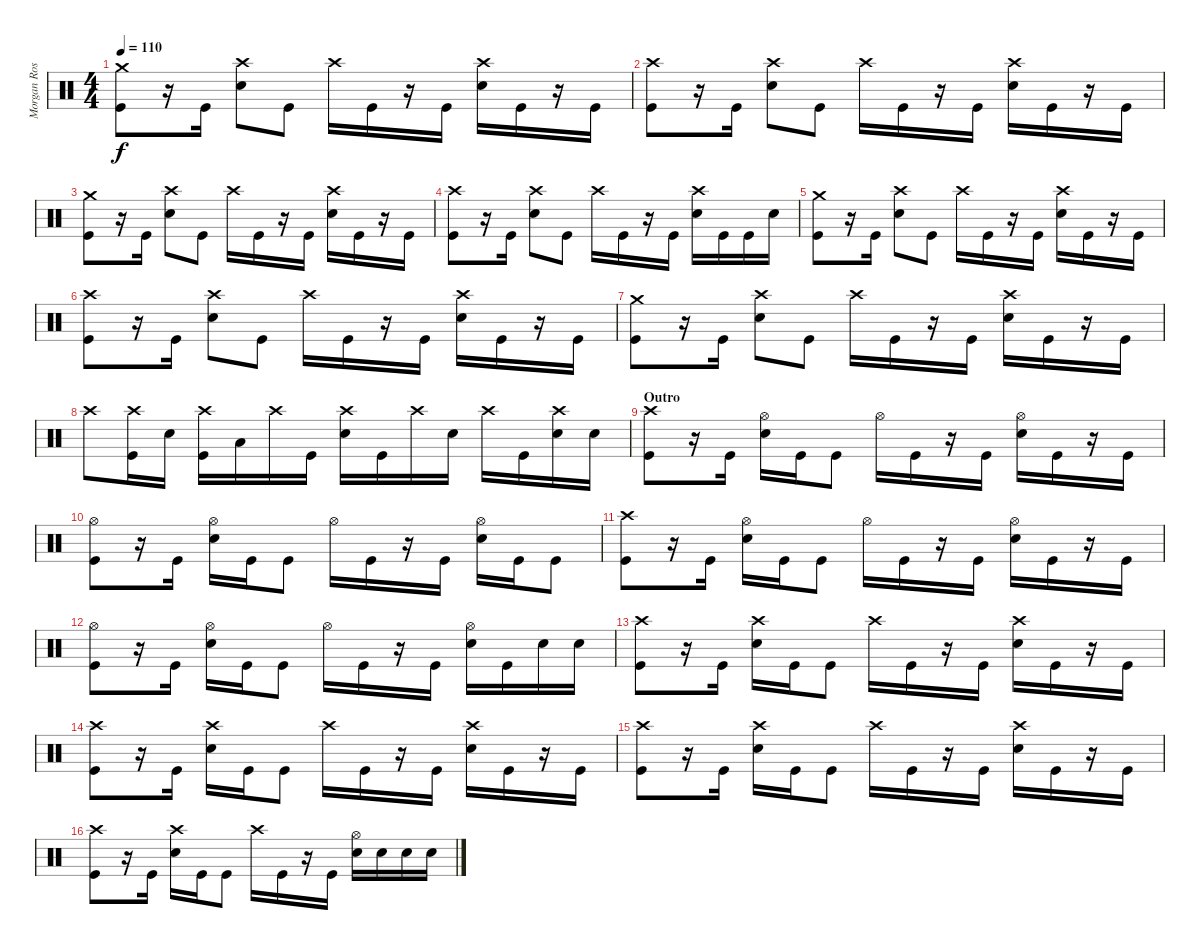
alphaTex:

\track ("Morgan Rose" "Morgan Ros") {instrument percussion}
\staff {score}
\articulation defaults
\ts (4 4)
\tempo 110
\clef neutral
\ks c
("Crash medium (hit)" "Kick (hit)").8{dy f} r.16 "Kick (hit)".16 ("Crash high (hit)" "Snare (hit) 2").8 "Kick (hit)".8 "Crash high (hit)".16 "Kick (hit)".16 r.16 "Kick (hit)".16 ("Crash high (hit)" "Snare (hit) 2").16 "Kick (hit)".16 r.16 "Kick (hit)".16 |
("Crash high (hit)" "Kick (hit)").8 r.16 "Kick (hit)".16 ("Crash high (hit)" "Snare (hit) 2").8 "Kick (hit)".8 "Crash high (hit)".16 "Kick (hit)".16 r.16 "Kick (hit)".16 ("Crash high (hit)" "Snare (hit) 2").16 "Kick (hit)".16 r.16 "Kick (hit)".16 |
("Crash medium (hit)" "Kick (hit)").8 r.16 "Kick (hit)".16 ("Crash high (hit)" "Snare (hit) 2").8 "Kick (hit)".8 "Crash high (hit)".16 "Kick (hit)".16 r.16 "Kick (hit)".16 ("Crash high (hit)" "Snare (hit) 2").16 "Kick (hit)".16 r.16 "Kick (hit)".16 |
("Crash high (hit)" "Kick (hit)").8 r.16 "Kick (hit)".16 ("Crash high (hit)" "Snare (hit) 2").8 "Kick (hit)".8 "Crash high (hit)".16 "Kick (hit)".16 r.16 "Kick (hit)".16 ("Crash high (hit)" "Snare (hit) 2").16 "Kick (hit)".16 "Kick (hit)".16 "Snare (hit) 2".16 |
("Crash medium (hit)" "Kick (hit)").8 r.16 "Kick (hit)".16 ("Crash high (hit)" "Snare (hit) 2").8 "Kick (hit)".8 "Crash high (hit)".16 "Kick (hit)".16 r.16 "Kick (hit)".16 ("Crash high (hit)" "Snare (hit) 2").16 "Kick (hit)".16 r.16 "Kick (hit)".16 |
("Crash high (hit)" "Kick (hit)").8 r.16 "Kick (hit)".16 ("Crash high (hit)" "Snare (hit) 2").8 "Kick (hit)".8 "Crash high (hit)".16 "Kick (hit)".16 r.16 "Kick (hit)".16 ("Crash high (hit)" "Snare (hit) 2").16 "Kick (hit)".16 r.16 "Kick (hit)".16 |
("Crash medium (hit)" "Kick (hit)").8 r.16 "Kick (hit)".16 ("Crash high (hit)" "Snare (hit) 2").8 "Kick (hit)".8 "Crash high (hit)".16 "Kick (hit)".16 r.16 "Kick (hit)".16 ("Crash high (hit)" "Snare (hit) 2").16 "Kick (hit)".16 r.16 "Kick (hit)".16 |
"Crash high (hit)".8 ("Crash high (hit)" "Kick (hit)").16 "Snare (hit) 2".16 ("Crash high (hit)" "Kick (hit)").16 "Low Tom (hit)".16 "Crash high (hit)".16 "Kick (hit)".16 ("Crash high (hit)" "Snare (hit) 2").16 "Kick (hit)".16 "Crash high (hit)".16 "Snare (hit) 2".16 "Crash high (hit)".16 "Kick (hit)".16 ("Crash high (hit)" "Snare (hit) 2").16 "Snare (hit) 2".16 |
\section ("" "Outro")
("Crash high (hit)" "Kick (hit)").8 r.16 "Kick (hit)".16 ("Hi-Hat (open)" "Snare (hit) 2").16 "Kick (hit)".16 "Kick (hit)".8 "Hi-Hat (open)".16 "Kick (hit)".16 r.16 "Kick (hit)".16 ("Hi-Hat (open)" "Snare (hit) 2").16 "Kick (hit)".16 r.16 "Kick (hit)".16 |
("Hi-Hat (open)" "Kick (hit)").8 r.16 "Kick (hit)".16 ("Hi-Hat (open)" "Snare (hit) 2").16 "Kick (hit)".16 "Kick (hit)".8 "Hi-Hat (open)".16 "Kick (hit)".16 r.16 "Kick (hit)".16 ("Hi-Hat (open)" "Snare (hit) 2").16 "Kick (hit)".16 "Kick (hit)".8 |
("Crash high (hit)" "Kick (hit)").8 r.16 "Kick (hit)".16 ("Hi-Hat (open)" "Snare (hit) 2").16 "Kick (hit)".16 "Kick (hit)".8 "Hi-Hat (open)".16 "Kick (hit)".16 r.16 "Kick (hit)".16 ("Hi-Hat (open)" "Snare (hit) 2").16 "Kick (hit)".16 r.16 "Kick (hit)".16 |
("Hi-Hat (open)" "Kick (hit)").8 r.16 "Kick (hit)".16 ("Hi-Hat (open)" "Snare (hit) 2").16 "Kick (hit)".16 "Kick (hit)".8 "Hi-Hat (open)".16 "Kick (hit)".16 r.16 "Kick (hit)".16 ("Hi-Hat (open)" "Snare (hit) 2").16 "Kick (hit)".16 "Snare (hit) 2".16 "Snare (hit) 2".16 |
("Crash high (hit)" "Kick (hit)").8 r.16 "Kick (hit)".16 ("Crash high (hit)" "Snare (hit) 2").16 "Kick (hit)".16 "Kick (hit)".8 "Crash high (hit)".16 "Kick (hit)".16 r.16 "Kick (hit)".16 ("Crash high (hit)" "Snare (hit) 2").16 "Kick (hit)".16 r.16 "Kick (hit)".16 |
("Crash high (hit)" "Kick (hit)").8 r.16 "Kick (hit)".16 ("Crash high (hit)" "Snare (hit) 2").16 "Kick (hit)".16 "Kick (hit)".8 "Crash high (hit)".16 "Kick (hit)".16 r.16 "Kick (hit)".16 ("Crash high (hit)" "Snare (hit) 2").16 "Kick (hit)".16 r.16 "Kick (hit)".16 |
("Crash high (hit)" "Kick (hit)").8 r.16 "Kick (hit)".16 ("Crash high (hit)" "Snare (hit) 2").16 "Kick (hit)".16 "Kick (hit)".8 "Crash high (hit)".16 "Kick (hit)".16 r.16 "Kick (hit)".16 ("Crash high (hit)" "Snare (hit) 2").16 "Kick (hit)".16 r.16 "Kick (hit)".16 |
("Crash high (hit)" "Kick (hit)").8 r.16 "Kick (hit)".16 ("Crash high (hit)" "Snare (hit) 2").16 "Kick (hit)".16 "Kick (hit)".8 "Crash high (hit)".16 "Kick (hit)".16 r.16 "Kick (hit)".16 ("Hi-Hat (open)" "Snare (hit) 2").16 "Snare (hit) 2".16 "Snare (hit) 2".16 "Snare (hit) 2".16
